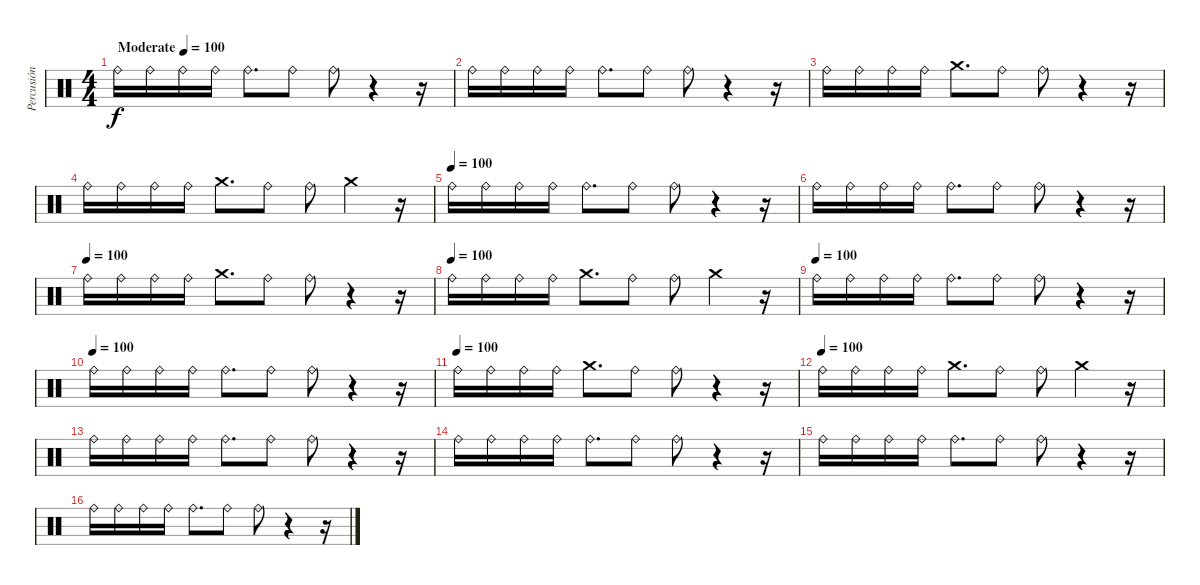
\track ("Percusión" "Percusión") {instrument percussion}
\staff {score}
\articulation defaults
\ts (4 4)
\tempo (100 "Moderate")
\clef neutral
\ks c "Ride (bell)".16{dy f} "Ride (bell)".16 "Ride (bell)".16 "Ride (bell)".16 "Ride (bell)".8{d} "Ride (bell)".8 "Ride (bell)".8
r.4 r.16 |
"Ride (bell)".16 "Ride (bell)".16 "Ride (bell)".16 "Ride (bell)".16 "Ride (bell)".8{d} "Ride (bell)".8 "Ride (bell)".8 r.4 r.16 |
"Ride (bell)".16 "Ride (bell)".16 "Ride (bell)".16 "Ride (bell)".16 "Crash medium (hit)".8{d} "Ride (bell)".8 "Ride (bell)".8 r.4 r.16 |
"Ride (bell)".16 "Ride (bell)".16 "Ride (bell)".16 "Ride (bell)".16 "Crash medium (hit)".8{d} "Ride (bell)".8 "Ride (bell)".8 "Crash medium (hit)".4 r.16 |
\tempo (100)
"Ride (bell)".16 "Ride (bell)".16 "Ride (bell)".16 "Ride (bell)".16 "Ride (bell)".8{d} "Ride (bell)".8 "Ride (bell)".8 r.4 r.16 |
"Ride (bell)".16 "Ride (bell)".16 "Ride (bell)".16 "Ride (bell)".16 "Ride (bell)".8{d} "Ride (bell)".8 "Ride (bell)".8 r.4 r.16 |
\tempo (100)
"Ride (bell)".16 "Ride (bell)".16 "Ride (bell)".16 "Ride (bell)".16 "Crash medium (hit)".8{d} "Ride (bell)".8 "Ride (bell)".8 r.4 r.16 |
\tempo (100)
"Ride (bell)".16 "Ride (bell)".16 "Ride (bell)".16 "Ride (bell)".16 "Crash medium (hit)".8{d} "Ride (bell)".8 "Ride (bell)".8 "Crash medium (hit)".4 r.16 |
\tempo (100)
"Ride (bell)".16 "Ride (bell)".16 "Ride (bell)".16 "Ride (bell)".16 "Ride (bell)".8{d} "Ride (bell)".8 "Ride (bell)".8 r.4 r.16 |
\tempo (100)
"Ride (bell)".16 "Ride (bell)".16 "Ride (bell)".16 "Ride (bell)".16 "Ride (bell)".8{d} "Ride (bell)".8 "Ride (bell)".8 r.4 r.16 |
\tempo (100)
"Ride (bell)".16 "Ride (bell)".16 "Ride (bell)".16 "Ride (bell)".16 "Crash medium (hit)".8{d} "Ride (bell)".8 "Ride (bell)".8 r.4 r.16 |
\tempo (100)
"Ride (bell)".16 "Ride (bell)".16 "Ride (bell)".16 "Ride (bell)".16 "Crash medium (hit)".8{d} "Ride (bell)".8 "Ride (bell)".8 "Crash medium (hit)".4 r.16 |
"Ride (bell)".16 "Ride (bell)".16 "Ride (bell)".16 "Ride (bell)".16 "Ride (bell)".8{d} "Ride (bell)".8 "Ride (bell)".8 r.4 r.16 |
"Ride (bell)".16 "Ride (bell)".16 "Ride (bell)".16 "Ride (bell)".16 "Ride (bell)".8{d} "Ride (bell)".8 "Ride (bell)".8 r.4 r.16 |
"Ride (bell)".16 "Ride (bell)".16 "Ride (bell)".16 "Ride (bell)".16 "Ride (bell)".8{d} "Ride (bell)".8 "Ride (bell)".8 r.4 r.16 |
"Ride (bell)".16 "Ride (bell)".16 "Ride (bell)".16 "Ride (bell)".16 "Ride (bell)".8{d} "Ride (bell)".8 "Ride (bell)".8 r.4 r.16
